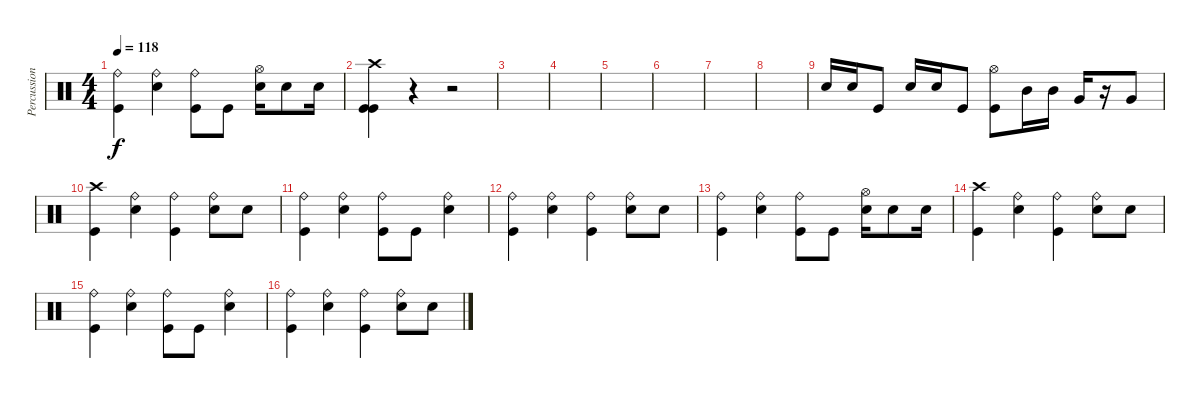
\track ("Percussion" "Percussion") {instrument percussion}
\staff {score}
\articulation defaults
\ts (4 4)
\tempo 118
\clef neutral
\ks c
("Ride (bell)" "Kick (hit)").4{dy f} ("Ride (bell)" "Electric Snare (hit)").4 ("Ride (bell)" "Kick (hit)").8 "Kick (hit)".8 ("Hi-Hat (open)" "Electric Snare (hit)").16 "Electric Snare (hit)".8 "Electric Snare (hit)".16 |
("Crash high (hit)" "Kick (hit)" "Kick (hit)").4 r.4 r.2 |
|
|
|
|
|
|
"Snare (hit) 2".16 "Snare (hit) 2".16 "Kick (hit)".8 "Snare (hit) 2".16 "Snare (hit) 2".16 "Kick (hit)".8 ("Hi-Hat (open)" "Kick (hit)").8 "Mid Tom (hit)".16 "Mid Tom (hit)".16 "Very Low Tom (hit)".16 r.16 "Very Low Tom (hit)".8 |
("Crash high (hit)" "Kick (hit)").4 ("Ride (bell)" "Electric Snare (hit)").4 ("Ride (bell)" "Kick (hit)").4 ("Ride (bell)" "Electric Snare (hit)").8 "Electric Snare (hit)".8 |
("Ride (bell)" "Kick (hit)").4 ("Ride (bell)" "Electric Snare (hit)").4 ("Ride (bell)" "Kick (hit)").8 "Kick (hit)".8 ("Ride (bell)" "Electric Snare (hit)").4 |
("Ride (bell)" "Kick (hit)").4 ("Ride (bell)" "Electric Snare (hit)").4 ("Ride (bell)" "Kick (hit)").4 ("Ride (bell)" "Electric Snare (hit)").8 "Electric Snare (hit)".8 |
("Ride (bell)" "Kick (hit)").4 ("Ride (bell)" "Electric Snare (hit)").4 ("Ride (bell)" "Kick (hit)").8 "Kick (hit)".8 ("Hi-Hat (open)" "Electric Snare (hit)").16 "Electric Snare (hit)".8 "Electric Snare (hit)".16 |
("Crash high (hit)" "Kick (hit)").4 ("Ride (bell)" "Electric Snare (hit)").4 ("Ride (bell)" "Kick (hit)").4 ("Ride (bell)" "Electric Snare (hit)").8 "Electric Snare (hit)".8 |
("Ride (bell)" "Kick (hit)").4 ("Ride (bell)" "Electric Snare (hit)").4 ("Ride (bell)" "Kick (hit)").8 "Kick (hit)".8 ("Ride (bell)" "Electric Snare (hit)").4 |
("Ride (bell)" "Kick (hit)").4 ("Ride (bell)" "Electric Snare (hit)").4 ("Ride (bell)" "Kick (hit)").4 ("Ride (bell)" "Electric Snare (hit)").8 "Electric Snare (hit)".8
